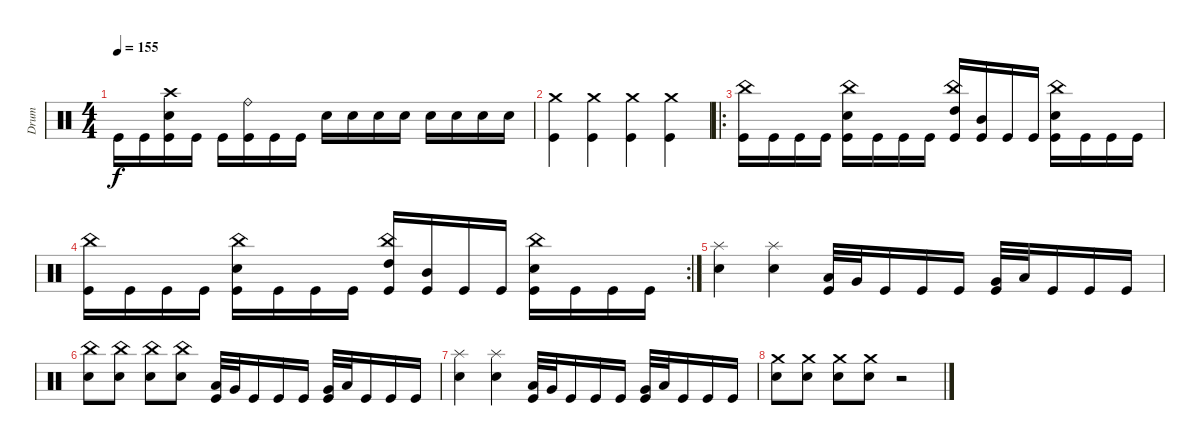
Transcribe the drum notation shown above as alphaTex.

\track ("Drum" "Drum") {instrument percussion}
\staff {score}
\articulation defaults
\ts (4 4)
\tempo 155
\clef neutral
\ks c "Kick (hit)".16{dy f} "Kick (hit)".16
("Kick (hit)" "Electric Snare (hit)" "Crash high (hit)").16 "Kick (hit)".16 "Kick (hit)".16 ("Kick (hit)" "Ride (bell)").16 "Kick (hit)".16 "Kick (hit)".16 "Electric Snare (hit)".16 "Electric Snare (hit)".16 "Electric Snare (hit)".16 "Electric Snare (hit)".16 "Electric Snare (hit)".16 "Electric Snare (hit)".16 "Electric Snare (hit)".16 "Electric Snare (hit)".16 |
("Kick (hit)" "Crash medium (hit)").4 ("Kick (hit)" "Crash medium (hit)").4 ("Kick (hit)" "Crash medium (hit)").4 ("Kick (hit)" "Crash medium (hit)").4 |
\ro
("Kick (hit)" "China (hit)").16 "Kick (hit)".16 "Kick (hit)".16 "Kick (hit)".16 ("Kick (hit)" "Electric Snare (hit)" "China (hit)").16 "Kick (hit)".16 "Kick (hit)".16 "Kick (hit)".16 ("Kick (hit)" "High Tom (hit)" "China (hit)").16 ("Kick (hit)" "Mid Tom (hit)").16 "Kick (hit)".16 "Kick (hit)".16 ("Kick (hit)" "Electric Snare (hit)" "China (hit)").16 "Kick (hit)".16 "Kick (hit)".16 "Kick (hit)".16 |
\rc 2
("Kick (hit)" "China (hit)").16 "Kick (hit)".16 "Kick (hit)".16 "Kick (hit)".16 ("Kick (hit)" "Electric Snare (hit)" "China (hit)").16 "Kick (hit)".16 "Kick (hit)".16 "Kick (hit)".16 ("Kick (hit)" "High Tom (hit)" "China (hit)").16 ("Kick (hit)" "Mid Tom (hit)").16 "Kick (hit)".16 "Kick (hit)".16 ("Kick (hit)" "Electric Snare (hit)" "China (hit)").16 "Kick (hit)".16 "Kick (hit)".16 "Kick (hit)".16 |
("Electric Snare (hit)" "Splash (hit)").4 ("Electric Snare (hit)" "Splash (hit)").4 ("Kick (hit)" "Low Tom (hit)").32 "Very Low Tom (hit)".32 "Kick (hit)".16 "Kick (hit)".16 "Kick (hit)".16 ("Kick (hit)" "Very Low Tom (hit)").32 "Low Floor Tom (hit)".32 "Kick (hit)".16 "Kick (hit)".16 "Kick (hit)".16 |
("Electric Snare (hit)" "China (hit)").8 ("Electric Snare (hit)" "China (hit)").8 ("Electric Snare (hit)" "China (hit)").8 ("Electric Snare (hit)" "China (hit)").8 ("Kick (hit)" "Low Tom (hit)").32 "Very Low Tom (hit)".32 "Kick (hit)".16 "Kick (hit)".16 "Kick (hit)".16 ("Kick (hit)" "Very Low Tom (hit)").32 "Low Floor Tom (hit)".32 "Kick (hit)".16 "Kick (hit)".16 "Kick (hit)".16 |
("Electric Snare (hit)" "Splash (hit)").4 ("Electric Snare (hit)" "Splash (hit)").4 ("Kick (hit)" "Low Tom (hit)").32 "Very Low Tom (hit)".32 "Kick (hit)".16 "Kick (hit)".16 "Kick (hit)".16 ("Kick (hit)" "Very Low Tom (hit)").32 "Low Floor Tom (hit)".32 "Kick (hit)".16 "Kick (hit)".16 "Kick (hit)".16 |
("Electric Snare (hit)" "Crash medium (hit)").8 ("Electric Snare (hit)" "Crash medium (hit)").8 ("Electric Snare (hit)" "Crash medium (hit)").8 ("Electric Snare (hit)" "Crash medium (hit)").8 r.2
